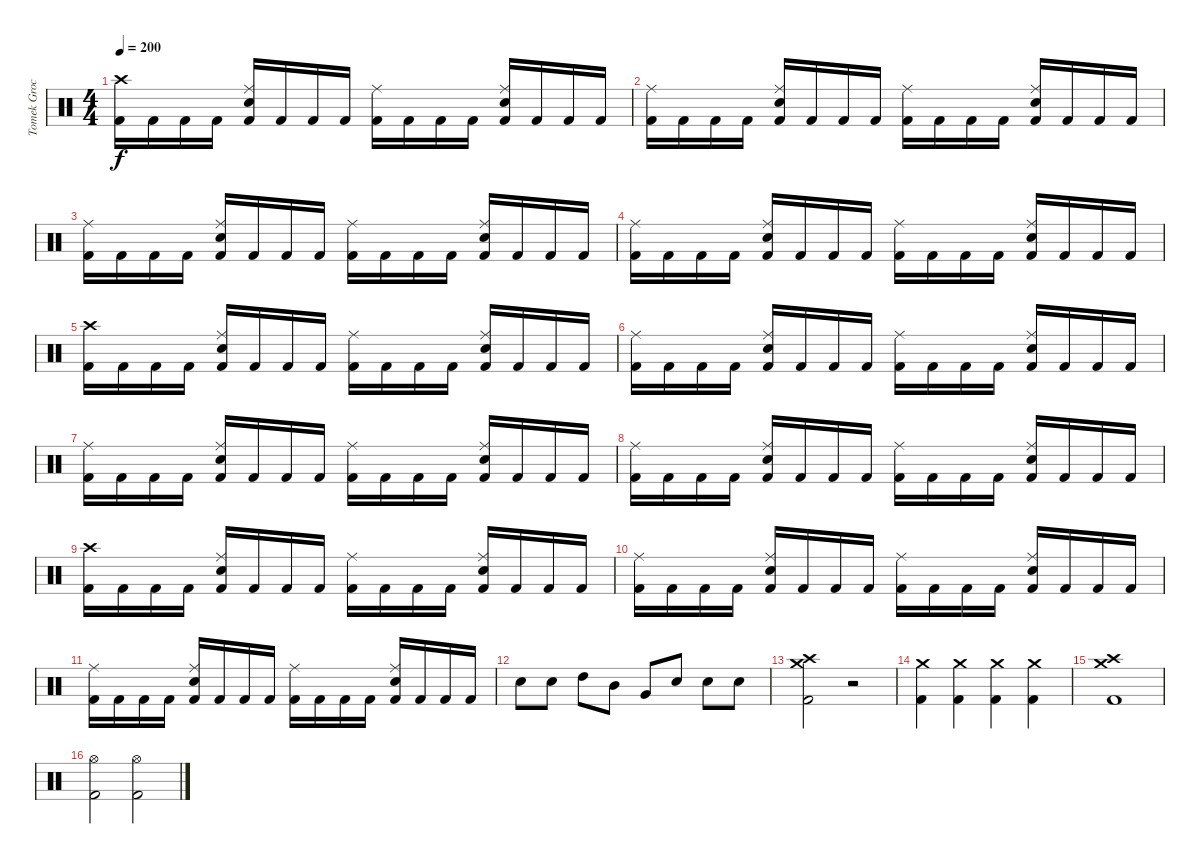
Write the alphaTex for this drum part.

\track ("Tomek Grochowski" "Tomek Groc") {instrument percussion}
\staff {score}
\articulation defaults
\ts (4 4)
\tempo 200
\clef neutral
\ks c
("Crash high (hit)" "Kick (hit) 2").16{dy f} "Kick (hit) 2".16 "Kick (hit) 2".16 "Kick (hit) 2".16 ("Ride (middle)" "Electric Snare (hit)" "Kick (hit) 2").16 "Kick (hit) 2".16 "Kick (hit) 2".16 "Kick (hit) 2".16 ("Ride (middle)" "Kick (hit) 2").16 "Kick (hit) 2".16 "Kick (hit) 2".16 "Kick (hit) 2".16 ("Ride (middle)" "Electric Snare (hit)" "Kick (hit) 2").16 "Kick (hit) 2".16 "Kick (hit) 2".16 "Kick (hit) 2".16 |
("Ride (middle)" "Kick (hit) 2").16 "Kick (hit) 2".16 "Kick (hit) 2".16 "Kick (hit) 2".16 ("Ride (middle)" "Electric Snare (hit)" "Kick (hit) 2").16 "Kick (hit) 2".16 "Kick (hit) 2".16 "Kick (hit) 2".16 ("Ride (middle)" "Kick (hit) 2").16 "Kick (hit) 2".16 "Kick (hit) 2".16 "Kick (hit) 2".16 ("Ride (middle)" "Electric Snare (hit)" "Kick (hit) 2").16 "Kick (hit) 2".16 "Kick (hit) 2".16 "Kick (hit) 2".16 |
("Ride (middle)" "Kick (hit) 2").16 "Kick (hit) 2".16 "Kick (hit) 2".16 "Kick (hit) 2".16 ("Ride (middle)" "Electric Snare (hit)" "Kick (hit) 2").16 "Kick (hit) 2".16 "Kick (hit) 2".16 "Kick (hit) 2".16 ("Ride (middle)" "Kick (hit) 2").16 "Kick (hit) 2".16 "Kick (hit) 2".16 "Kick (hit) 2".16 ("Ride (middle)" "Electric Snare (hit)" "Kick (hit) 2").16 "Kick (hit) 2".16 "Kick (hit) 2".16 "Kick (hit) 2".16 |
("Ride (middle)" "Kick (hit) 2").16 "Kick (hit) 2".16 "Kick (hit) 2".16 "Kick (hit) 2".16 ("Ride (middle)" "Electric Snare (hit)" "Kick (hit) 2").16 "Kick (hit) 2".16 "Kick (hit) 2".16 "Kick (hit) 2".16 ("Ride (middle)" "Kick (hit) 2").16 "Kick (hit) 2".16 "Kick (hit) 2".16 "Kick (hit) 2".16 ("Ride (middle)" "Electric Snare (hit)" "Kick (hit) 2").16 "Kick (hit) 2".16 "Kick (hit) 2".16 "Kick (hit) 2".16 |
("Crash high (hit)" "Kick (hit) 2").16 "Kick (hit) 2".16 "Kick (hit) 2".16 "Kick (hit) 2".16 ("Ride (middle)" "Electric Snare (hit)" "Kick (hit) 2").16 "Kick (hit) 2".16 "Kick (hit) 2".16 "Kick (hit) 2".16 ("Ride (middle)" "Kick (hit) 2").16 "Kick (hit) 2".16 "Kick (hit) 2".16 "Kick (hit) 2".16 ("Ride (middle)" "Electric Snare (hit)" "Kick (hit) 2").16 "Kick (hit) 2".16 "Kick (hit) 2".16 "Kick (hit) 2".16 |
("Ride (middle)" "Kick (hit) 2").16 "Kick (hit) 2".16 "Kick (hit) 2".16 "Kick (hit) 2".16 ("Ride (middle)" "Electric Snare (hit)" "Kick (hit) 2").16 "Kick (hit) 2".16 "Kick (hit) 2".16 "Kick (hit) 2".16 ("Ride (middle)" "Kick (hit) 2").16 "Kick (hit) 2".16 "Kick (hit) 2".16 "Kick (hit) 2".16 ("Ride (middle)" "Electric Snare (hit)" "Kick (hit) 2").16 "Kick (hit) 2".16 "Kick (hit) 2".16 "Kick (hit) 2".16 |
("Ride (middle)" "Kick (hit) 2").16 "Kick (hit) 2".16 "Kick (hit) 2".16 "Kick (hit) 2".16 ("Ride (middle)" "Electric Snare (hit)" "Kick (hit) 2").16 "Kick (hit) 2".16 "Kick (hit) 2".16 "Kick (hit) 2".16 ("Ride (middle)" "Kick (hit) 2").16 "Kick (hit) 2".16 "Kick (hit) 2".16 "Kick (hit) 2".16 ("Ride (middle)" "Electric Snare (hit)" "Kick (hit) 2").16 "Kick (hit) 2".16 "Kick (hit) 2".16 "Kick (hit) 2".16 |
("Ride (middle)" "Kick (hit) 2").16 "Kick (hit) 2".16 "Kick (hit) 2".16 "Kick (hit) 2".16 ("Ride (middle)" "Electric Snare (hit)" "Kick (hit) 2").16 "Kick (hit) 2".16 "Kick (hit) 2".16 "Kick (hit) 2".16 ("Ride (middle)" "Kick (hit) 2").16 "Kick (hit) 2".16 "Kick (hit) 2".16 "Kick (hit) 2".16 ("Ride (middle)" "Electric Snare (hit)" "Kick (hit) 2").16 "Kick (hit) 2".16 "Kick (hit) 2".16 "Kick (hit) 2".16 |
("Crash high (hit)" "Kick (hit) 2").16 "Kick (hit) 2".16 "Kick (hit) 2".16 "Kick (hit) 2".16 ("Ride (middle)" "Electric Snare (hit)" "Kick (hit) 2").16 "Kick (hit) 2".16 "Kick (hit) 2".16 "Kick (hit) 2".16 ("Ride (middle)" "Kick (hit) 2").16 "Kick (hit) 2".16 "Kick (hit) 2".16 "Kick (hit) 2".16 ("Ride (middle)" "Electric Snare (hit)" "Kick (hit) 2").16 "Kick (hit) 2".16 "Kick (hit) 2".16 "Kick (hit) 2".16 |
("Ride (middle)" "Kick (hit) 2").16 "Kick (hit) 2".16 "Kick (hit) 2".16 "Kick (hit) 2".16 ("Ride (middle)" "Electric Snare (hit)" "Kick (hit) 2").16 "Kick (hit) 2".16 "Kick (hit) 2".16 "Kick (hit) 2".16 ("Ride (middle)" "Kick (hit) 2").16 "Kick (hit) 2".16 "Kick (hit) 2".16 "Kick (hit) 2".16 ("Ride (middle)" "Electric Snare (hit)" "Kick (hit) 2").16 "Kick (hit) 2".16 "Kick (hit) 2".16 "Kick (hit) 2".16 |
("Ride (middle)" "Kick (hit) 2").16 "Kick (hit) 2".16 "Kick (hit) 2".16 "Kick (hit) 2".16 ("Ride (middle)" "Electric Snare (hit)" "Kick (hit) 2").16 "Kick (hit) 2".16 "Kick (hit) 2".16 "Kick (hit) 2".16 ("Ride (middle)" "Kick (hit) 2").16 "Kick (hit) 2".16 "Kick (hit) 2".16 "Kick (hit) 2".16 ("Ride (middle)" "Electric Snare (hit)" "Kick (hit) 2").16 "Kick (hit) 2".16 "Kick (hit) 2".16 "Kick (hit) 2".16 |
"Electric Snare (hit)".8 "Electric Snare (hit)".8 "High Tom (hit)".8 "Mid Tom (hit)".8 "Very Low Tom (hit)".8 "Electric Snare (hit)".8 "Electric Snare (hit)".8 "Electric Snare (hit)".8 |
("Crash high (hit)" "Crash medium (hit)" "Kick (hit) 2").2 r.2 |
("Crash medium (hit)" "Kick (hit) 2").4 ("Crash medium (hit)" "Kick (hit) 2").4 ("Crash medium (hit)" "Kick (hit) 2").4 ("Crash medium (hit)" "Kick (hit) 2").4 |
("Crash high (hit)" "Crash medium (hit)" "Kick (hit) 2").1 |
("Hi-Hat (open)" "Kick (hit) 2").2 ("Hi-Hat (open)" "Kick (hit) 2").2
